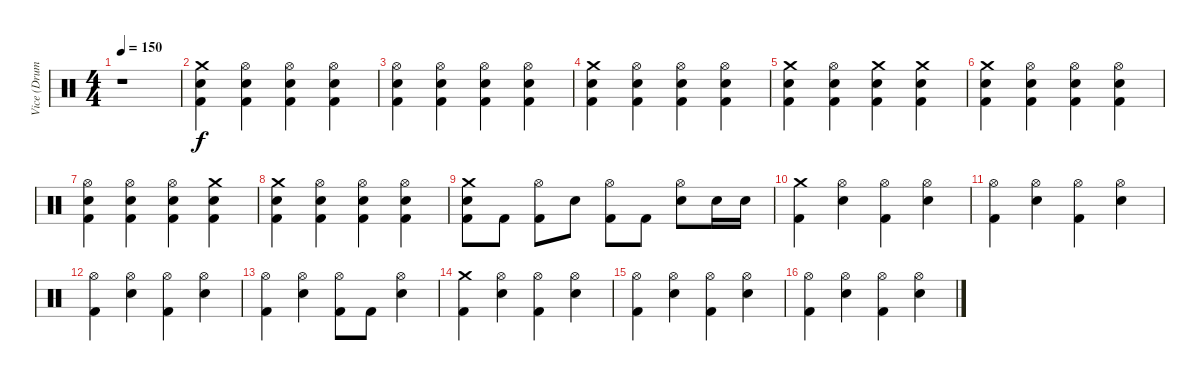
\track ("Vice (Drums)" "Vice (Drum") {instrument percussion}
\staff {score}
\articulation defaults
\ts (4 4)
\tempo 150
\clef neutral
\ks c
r.1{dy f} |
("Crash medium (hit)" "Electric Snare (hit)" "Kick (hit) 2").4 ("Hi-Hat (open)" "Electric Snare (hit)" "Kick (hit) 2").4 ("Hi-Hat (open)" "Electric Snare (hit)" "Kick (hit) 2").4 ("Hi-Hat (open)" "Electric Snare (hit)" "Kick (hit) 2").4 |
("Hi-Hat (open)" "Electric Snare (hit)" "Kick (hit) 2").4 ("Hi-Hat (open)" "Electric Snare (hit)" "Kick (hit) 2").4 ("Hi-Hat (open)" "Electric Snare (hit)" "Kick (hit) 2").4 ("Hi-Hat (open)" "Electric Snare (hit)" "Kick (hit) 2").4 |
("Crash medium (hit)" "Electric Snare (hit)" "Kick (hit) 2").4 ("Hi-Hat (open)" "Electric Snare (hit)" "Kick (hit) 2").4 ("Hi-Hat (open)" "Electric Snare (hit)" "Kick (hit) 2").4 ("Hi-Hat (open)" "Electric Snare (hit)" "Kick (hit) 2").4 |
("Crash medium (hit)" "Electric Snare (hit)" "Kick (hit) 2").4 ("Hi-Hat (open)" "Electric Snare (hit)" "Kick (hit) 2").4 ("Crash medium (hit)" "Electric Snare (hit)" "Kick (hit) 2").4 ("Crash medium (hit)" "Electric Snare (hit)" "Kick (hit) 2").4 |
("Crash medium (hit)" "Electric Snare (hit)" "Kick (hit) 2").4 ("Hi-Hat (open)" "Electric Snare (hit)" "Kick (hit) 2").4 ("Hi-Hat (open)" "Electric Snare (hit)" "Kick (hit) 2").4 ("Hi-Hat (open)" "Electric Snare (hit)" "Kick (hit) 2").4 |
("Hi-Hat (open)" "Electric Snare (hit)" "Kick (hit) 2").4 ("Hi-Hat (open)" "Electric Snare (hit)" "Kick (hit) 2").4 ("Hi-Hat (open)" "Electric Snare (hit)" "Kick (hit) 2").4 ("Crash medium (hit)" "Electric Snare (hit)" "Kick (hit) 2").4 |
("Crash medium (hit)" "Electric Snare (hit)" "Kick (hit) 2").4 ("Hi-Hat (open)" "Electric Snare (hit)" "Kick (hit) 2").4 ("Hi-Hat (open)" "Electric Snare (hit)" "Kick (hit) 2").4 ("Hi-Hat (open)" "Electric Snare (hit)" "Kick (hit) 2").4 |
("Crash medium (hit)" "Electric Snare (hit)" "Kick (hit) 2").8 "Kick (hit) 2".8 ("Hi-Hat (open)" "Kick (hit) 2").8 "Electric Snare (hit)".8 ("Hi-Hat (open)" "Kick (hit) 2").8 "Kick (hit) 2".8 ("Hi-Hat (open)" "Electric Snare (hit)").8 "Electric Snare (hit)".16 "Electric Snare (hit)".16 |
("Crash medium (hit)" "Kick (hit) 2").4 ("Hi-Hat (open)" "Electric Snare (hit)").4 ("Hi-Hat (open)" "Kick (hit) 2").4 ("Hi-Hat (open)" "Electric Snare (hit)").4 |
("Hi-Hat (open)" "Kick (hit) 2").4 ("Hi-Hat (open)" "Electric Snare (hit)").4 ("Hi-Hat (open)" "Kick (hit) 2").4 ("Hi-Hat (open)" "Electric Snare (hit)").4 |
("Hi-Hat (open)" "Kick (hit) 2").4 ("Hi-Hat (open)" "Electric Snare (hit)").4 ("Hi-Hat (open)" "Kick (hit) 2").4 ("Hi-Hat (open)" "Electric Snare (hit)").4 |
("Hi-Hat (open)" "Kick (hit) 2").4 ("Hi-Hat (open)" "Electric Snare (hit)").4 ("Hi-Hat (open)" "Kick (hit) 2").8 "Kick (hit) 2".8 ("Hi-Hat (open)" "Electric Snare (hit)").4 |
("Crash medium (hit)" "Kick (hit) 2").4 ("Hi-Hat (open)" "Electric Snare (hit)").4 ("Hi-Hat (open)" "Kick (hit) 2").4 ("Hi-Hat (open)" "Electric Snare (hit)").4 |
("Hi-Hat (open)" "Kick (hit) 2").4 ("Hi-Hat (open)" "Electric Snare (hit)").4 ("Hi-Hat (open)" "Kick (hit) 2").4 ("Hi-Hat (open)" "Electric Snare (hit)").4 |
("Hi-Hat (open)" "Kick (hit) 2").4 ("Hi-Hat (open)" "Electric Snare (hit)").4 ("Hi-Hat (open)" "Kick (hit) 2").4 ("Hi-Hat (open)" "Electric Snare (hit)").4
